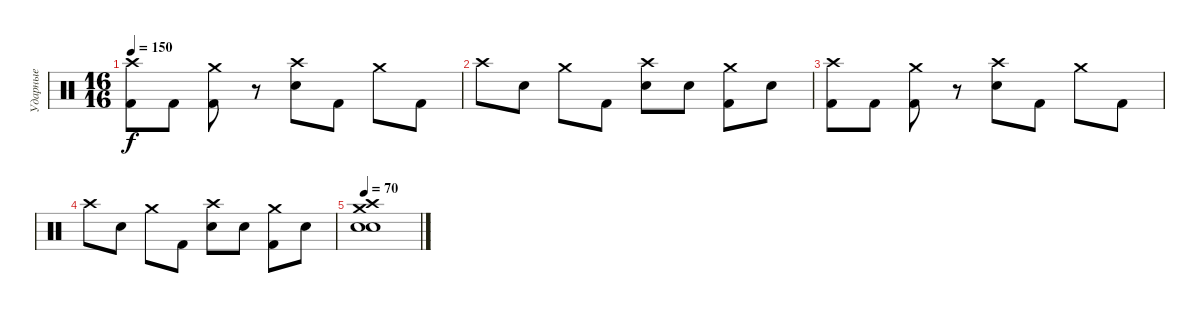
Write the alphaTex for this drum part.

\track ("Ударные" "Ударные") {instrument percussion}
\staff {score}
\articulation defaults
\ts (16 16)
\tempo 150
\clef neutral
\ks c
("Crash high (hit)" "Kick (hit) 2").8{dy f} "Kick (hit) 2".8 ("Crash medium (hit)" "Kick (hit) 2").8 r.8 ("Crash high (hit)" "Electric Snare (hit)").8 "Kick (hit) 2".8 "Crash medium (hit)".8 "Kick (hit) 2".8 |
"Crash high (hit)".8 "Snare (hit) 2".8 "Crash medium (hit)".8 "Kick (hit) 2".8 ("Crash high (hit)" "Electric Snare (hit)").8 "Snare (hit) 2".8 ("Crash medium (hit)" "Kick (hit) 2").8 "Electric Snare (hit)".8 |
("Crash high (hit)" "Kick (hit) 2").8 "Kick (hit) 2".8 ("Crash medium (hit)" "Kick (hit) 2").8 r.8 ("Crash high (hit)" "Electric Snare (hit)").8 "Kick (hit) 2".8 "Crash medium (hit)".8 "Kick (hit) 2".8 |
"Crash high (hit)".8 "Snare (hit) 2".8 "Crash medium (hit)".8 "Kick (hit) 2".8 ("Crash high (hit)" "Electric Snare (hit)").8 "Snare (hit) 2".8 ("Crash medium (hit)" "Kick (hit) 2").8 "Electric Snare (hit)".8 |
\tempo 70
("Crash high (hit)" "Snare (hit) 2" "Crash medium (hit)" "Electric Snare (hit)").1
